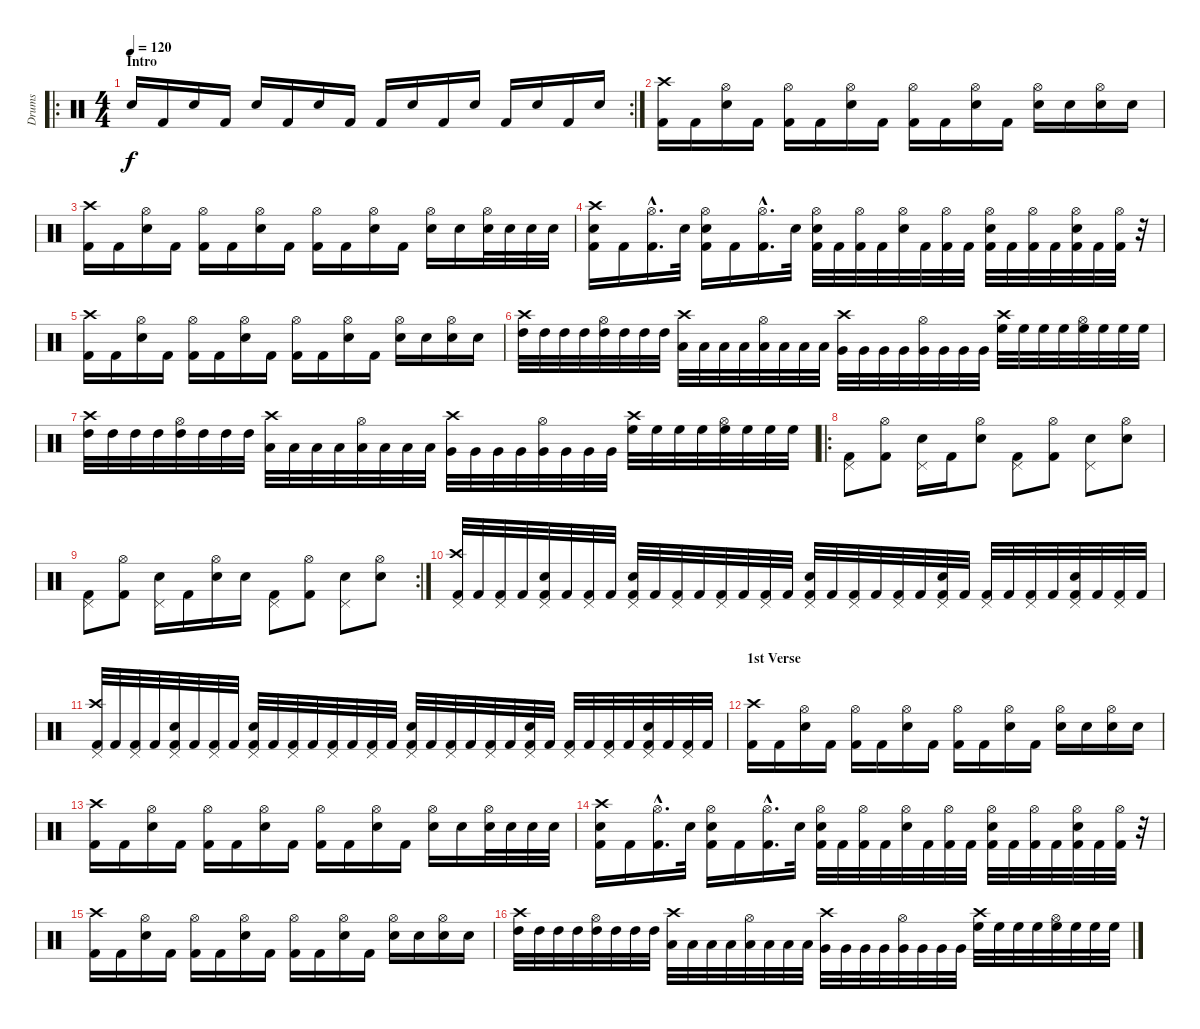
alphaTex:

\track ("Drums" "Drums") {instrument percussion}
\staff {score}
\articulation defaults
\ro
\rc 2
\ts (4 4)
\section ("" "Intro")
\tempo 120
\clef neutral
\ks c "Electric Snare (hit)".16{dy f} "Kick (hit) 2".16 "Electric Snare (hit)".16 "Kick (hit) 2".16 "Electric Snare (hit)".16 "Kick (hit) 2".16 "Electric Snare (hit)".16 "Kick (hit) 2".16 "Kick (hit) 2".16 "Electric Snare (hit)".16 "Kick (hit) 2".16 "Electric Snare (hit)".16 "Kick (hit) 2".16 "Electric Snare (hit)".16 "Kick (hit) 2".16 "Electric Snare (hit)".16
|
("Crash high (hit)" "Kick (hit) 2").16 "Kick (hit) 2".16 ("Hi-Hat (open)" "Electric Snare (hit)").16 "Kick (hit) 2".16 ("Hi-Hat (open)" "Kick (hit) 2").16 "Kick (hit) 2".16 ("Hi-Hat (open)" "Electric Snare (hit)").16 "Kick (hit) 2".16 ("Hi-Hat (open)" "Kick (hit) 2").16 "Kick (hit) 2".16 ("Hi-Hat (open)" "Electric Snare (hit)").16 "Kick (hit) 2".16 ("Hi-Hat (open)" "Electric Snare (hit)").16 "Electric Snare (hit)".16 ("Hi-Hat (open)" "Electric Snare (hit)").16 "Electric Snare (hit)".16 |
("Crash high (hit)" "Kick (hit) 2").16 "Kick (hit) 2".16 ("Hi-Hat (open)" "Electric Snare (hit)").16 "Kick (hit) 2".16 ("Hi-Hat (open)" "Kick (hit) 2").16 "Kick (hit) 2".16 ("Hi-Hat (open)" "Electric Snare (hit)").16 "Kick (hit) 2".16 ("Hi-Hat (open)" "Kick (hit) 2").16 "Kick (hit) 2".16 ("Hi-Hat (open)" "Electric Snare (hit)").16 "Kick (hit) 2".16 ("Hi-Hat (open)" "Electric Snare (hit)").16 "Electric Snare (hit)".16 ("Hi-Hat (open)" "Electric Snare (hit)").32 "Electric Snare (hit)".32 "Electric Snare (hit)".32 "Electric Snare (hit)".32 |
("Crash high (hit)" "Electric Snare (hit)" "Kick (hit) 2").16 "Kick (hit) 2".16 ("Hi-Hat (open)"{hac} "Kick (hit) 2"{hac}).16{d} "Electric Snare (hit)".32 ("Hi-Hat (open)" "Electric Snare (hit)" "Kick (hit) 2").16 "Kick (hit) 2".16 ("Hi-Hat (open)"{hac} "Kick (hit) 2"{hac}).16{d} "Electric Snare (hit)".32 ("Hi-Hat (open)" "Electric Snare (hit)" "Kick (hit) 2").32 "Kick (hit) 2".32 ("Hi-Hat (open)" "Kick (hit) 2").32 "Kick (hit) 2".32 ("Hi-Hat (open)" "Electric Snare (hit)").32 "Kick (hit) 2".32 ("Hi-Hat (open)" "Kick (hit) 2").32 "Kick (hit) 2".32 ("Hi-Hat (open)" "Electric Snare (hit)" "Kick (hit) 2").32 "Kick (hit) 2".32 ("Hi-Hat (open)" "Kick (hit) 2").32 "Kick (hit) 2".32 ("Hi-Hat (open)" "Electric Snare (hit)" "Kick (hit) 2").32 "Kick (hit) 2".32 ("Hi-Hat (open)" "Kick (hit) 2").32 r.32 |
("Crash high (hit)" "Kick (hit) 2").16 "Kick (hit) 2".16 ("Hi-Hat (open)" "Electric Snare (hit)").16 "Kick (hit) 2".16 ("Hi-Hat (open)" "Kick (hit) 2").16 "Kick (hit) 2".16 ("Hi-Hat (open)" "Electric Snare (hit)").16 "Kick (hit) 2".16 ("Hi-Hat (open)" "Kick (hit) 2").16 "Kick (hit) 2".16 ("Hi-Hat (open)" "Electric Snare (hit)").16 "Kick (hit) 2".16 ("Hi-Hat (open)" "Electric Snare (hit)").16 "Electric Snare (hit)".16 ("Hi-Hat (open)" "Electric Snare (hit)").16 "Electric Snare (hit)".16 |
("Crash high (hit)" "High Tom (hit)").32 "High Tom (hit)".32 "High Tom (hit)".32 "High Tom (hit)".32 ("Hi-Hat (open)" "High Tom (hit)").32 "High Tom (hit)".32 "High Tom (hit)".32 "High Tom (hit)".32 ("Crash high (hit)" "Low Tom (hit)").32 "Low Tom (hit)".32 "Low Tom (hit)".32 "Low Tom (hit)".32 ("Hi-Hat (open)" "Low Tom (hit)").32 "Low Tom (hit)".32 "Low Tom (hit)".32 "Low Tom (hit)".32 ("Crash high (hit)" "Very Low Tom (hit)").32 "Very Low Tom (hit)".32 "Very Low Tom (hit)".32 "Very Low Tom (hit)".32 ("Hi-Hat (open)" "Very Low Tom (hit)").32 "Very Low Tom (hit)".32 "Very Low Tom (hit)".32 "Very Low Tom (hit)".32 ("Crash high (hit)" "High Floor Tom (hit)").32 "High Floor Tom (hit)".32 "High Floor Tom (hit)".32 "High Floor Tom (hit)".32 ("Hi-Hat (open)" "High Floor Tom (hit)").32 "High Floor Tom (hit)".32 "High Floor Tom (hit)".32 "High Floor Tom (hit)".32 |
("Crash high (hit)" "High Tom (hit)").32 "High Tom (hit)".32 "High Tom (hit)".32 "High Tom (hit)".32 ("Hi-Hat (open)" "High Tom (hit)").32 "High Tom (hit)".32 "High Tom (hit)".32 "High Tom (hit)".32 ("Crash high (hit)" "Low Tom (hit)").32 "Low Tom (hit)".32 "Low Tom (hit)".32 "Low Tom (hit)".32 ("Hi-Hat (open)" "Low Tom (hit)").32 "Low Tom (hit)".32 "Low Tom (hit)".32 "Low Tom (hit)".32 ("Crash high (hit)" "Very Low Tom (hit)").32 "Very Low Tom (hit)".32 "Very Low Tom (hit)".32 "Very Low Tom (hit)".32 ("Hi-Hat (open)" "Very Low Tom (hit)").32 "Very Low Tom (hit)".32 "Very Low Tom (hit)".32 "Very Low Tom (hit)".32 ("Crash high (hit)" "High Floor Tom (hit)").32 "High Floor Tom (hit)".32 "High Floor Tom (hit)".32 "High Floor Tom (hit)".32 ("Hi-Hat (open)" "High Floor Tom (hit)").32 "High Floor Tom (hit)".32 "High Floor Tom (hit)".32 "High Floor Tom (hit)".32 |
\ro
("Pedal Hi-Hat (hit)" "Kick (hit) 2").8 ("Hi-Hat (open)" "Kick (hit) 2").8 ("Pedal Hi-Hat (hit)" "Electric Snare (hit)").16 "Kick (hit) 2".16 ("Hi-Hat (open)" "Electric Snare (hit)").8 ("Pedal Hi-Hat (hit)" "Kick (hit) 2").8 ("Hi-Hat (open)" "Kick (hit) 2").8 ("Pedal Hi-Hat (hit)" "Electric Snare (hit)").8 ("Hi-Hat (open)" "Electric Snare (hit)").8 |
\rc 2
("Pedal Hi-Hat (hit)" "Kick (hit) 2").8 ("Hi-Hat (open)" "Kick (hit) 2").8 ("Pedal Hi-Hat (hit)" "Electric Snare (hit)").16 "Kick (hit) 2".16 ("Hi-Hat (open)" "Electric Snare (hit)").16 "Electric Snare (hit)".16 ("Pedal Hi-Hat (hit)" "Kick (hit) 2").8 ("Hi-Hat (open)" "Kick (hit) 2").8 ("Pedal Hi-Hat (hit)" "Electric Snare (hit)").8 ("Hi-Hat (open)" "Electric Snare (hit)").8 |
("Crash high (hit)" "Pedal Hi-Hat (hit)" "Kick (hit) 2").32 "Kick (hit) 2".32 ("Pedal Hi-Hat (hit)" "Kick (hit) 2").32 "Kick (hit) 2".32 ("Pedal Hi-Hat (hit)" "Electric Snare (hit)" "Kick (hit) 2").32 "Kick (hit) 2".32 ("Pedal Hi-Hat (hit)" "Kick (hit) 2").32 "Kick (hit) 2".32 ("Pedal Hi-Hat (hit)" "Electric Snare (hit)" "Kick (hit) 2").32 "Kick (hit) 2".32 ("Pedal Hi-Hat (hit)" "Kick (hit) 2").32 "Kick (hit) 2".32 ("Pedal Hi-Hat (hit)" "Kick (hit) 2").32 "Kick (hit) 2".32 ("Pedal Hi-Hat (hit)" "Kick (hit) 2").32 "Kick (hit) 2".32 ("Pedal Hi-Hat (hit)" "Electric Snare (hit)" "Kick (hit) 2").32 "Kick (hit) 2".32 ("Pedal Hi-Hat (hit)" "Kick (hit) 2").32 "Kick (hit) 2".32 ("Pedal Hi-Hat (hit)" "Kick (hit) 2").32 "Kick (hit) 2".32 ("Pedal Hi-Hat (hit)" "Electric Snare (hit)" "Kick (hit) 2").32 "Kick (hit) 2".32 ("Pedal Hi-Hat (hit)" "Kick (hit) 2").32 "Kick (hit) 2".32 ("Pedal Hi-Hat (hit)" "Kick (hit) 2").32 "Kick (hit) 2".32 ("Pedal Hi-Hat (hit)" "Electric Snare (hit)" "Kick (hit) 2").32 "Kick (hit) 2".32 ("Pedal Hi-Hat (hit)" "Kick (hit) 2").32 "Kick (hit) 2".32 |
("Crash high (hit)" "Pedal Hi-Hat (hit)" "Kick (hit) 2").32 "Kick (hit) 2".32 ("Pedal Hi-Hat (hit)" "Kick (hit) 2").32 "Kick (hit) 2".32 ("Pedal Hi-Hat (hit)" "Electric Snare (hit)" "Kick (hit) 2").32 "Kick (hit) 2".32 ("Pedal Hi-Hat (hit)" "Kick (hit) 2").32 "Kick (hit) 2".32 ("Pedal Hi-Hat (hit)" "Electric Snare (hit)" "Kick (hit) 2").32 "Kick (hit) 2".32 ("Pedal Hi-Hat (hit)" "Kick (hit) 2").32 "Kick (hit) 2".32 ("Pedal Hi-Hat (hit)" "Kick (hit) 2").32 "Kick (hit) 2".32 ("Pedal Hi-Hat (hit)" "Kick (hit) 2").32 "Kick (hit) 2".32 ("Pedal Hi-Hat (hit)" "Electric Snare (hit)" "Kick (hit) 2").32 "Kick (hit) 2".32 ("Pedal Hi-Hat (hit)" "Kick (hit) 2").32 "Kick (hit) 2".32 ("Pedal Hi-Hat (hit)" "Kick (hit) 2").32 "Kick (hit) 2".32 ("Pedal Hi-Hat (hit)" "Electric Snare (hit)" "Kick (hit) 2").32 "Kick (hit) 2".32 ("Pedal Hi-Hat (hit)" "Kick (hit) 2").32 "Kick (hit) 2".32 ("Pedal Hi-Hat (hit)" "Kick (hit) 2").32 "Kick (hit) 2".32 ("Pedal Hi-Hat (hit)" "Electric Snare (hit)" "Kick (hit) 2").32 "Kick (hit) 2".32 ("Pedal Hi-Hat (hit)" "Kick (hit) 2").32 "Kick (hit) 2".32 |
\section ("" "1st Verse")
("Crash high (hit)" "Kick (hit) 2").16 "Kick (hit) 2".16 ("Hi-Hat (open)" "Electric Snare (hit)").16 "Kick (hit) 2".16 ("Hi-Hat (open)" "Kick (hit) 2").16 "Kick (hit) 2".16 ("Hi-Hat (open)" "Electric Snare (hit)").16 "Kick (hit) 2".16 ("Hi-Hat (open)" "Kick (hit) 2").16 "Kick (hit) 2".16 ("Hi-Hat (open)" "Electric Snare (hit)").16 "Kick (hit) 2".16 ("Hi-Hat (open)" "Electric Snare (hit)").16 "Electric Snare (hit)".16 ("Hi-Hat (open)" "Electric Snare (hit)").16 "Electric Snare (hit)".16 |
("Crash high (hit)" "Kick (hit) 2").16 "Kick (hit) 2".16 ("Hi-Hat (open)" "Electric Snare (hit)").16 "Kick (hit) 2".16 ("Hi-Hat (open)" "Kick (hit) 2").16 "Kick (hit) 2".16 ("Hi-Hat (open)" "Electric Snare (hit)").16 "Kick (hit) 2".16 ("Hi-Hat (open)" "Kick (hit) 2").16 "Kick (hit) 2".16 ("Hi-Hat (open)" "Electric Snare (hit)").16 "Kick (hit) 2".16 ("Hi-Hat (open)" "Electric Snare (hit)").16 "Electric Snare (hit)".16 ("Hi-Hat (open)" "Electric Snare (hit)").32 "Electric Snare (hit)".32 "Electric Snare (hit)".32 "Electric Snare (hit)".32 |
("Crash high (hit)" "Electric Snare (hit)" "Kick (hit) 2").16 "Kick (hit) 2".16 ("Hi-Hat (open)"{hac} "Kick (hit) 2"{hac}).16{d} "Electric Snare (hit)".32 ("Hi-Hat (open)" "Electric Snare (hit)" "Kick (hit) 2").16 "Kick (hit) 2".16 ("Hi-Hat (open)"{hac} "Kick (hit) 2"{hac}).16{d} "Electric Snare (hit)".32 ("Hi-Hat (open)" "Electric Snare (hit)" "Kick (hit) 2").32 "Kick (hit) 2".32 ("Hi-Hat (open)" "Kick (hit) 2").32 "Kick (hit) 2".32 ("Hi-Hat (open)" "Electric Snare (hit)").32 "Kick (hit) 2".32 ("Hi-Hat (open)" "Kick (hit) 2").32 "Kick (hit) 2".32 ("Hi-Hat (open)" "Electric Snare (hit)" "Kick (hit) 2").32 "Kick (hit) 2".32 ("Hi-Hat (open)" "Kick (hit) 2").32 "Kick (hit) 2".32 ("Hi-Hat (open)" "Electric Snare (hit)" "Kick (hit) 2").32 "Kick (hit) 2".32 ("Hi-Hat (open)" "Kick (hit) 2").32 r.32 |
("Crash high (hit)" "Kick (hit) 2").16 "Kick (hit) 2".16 ("Hi-Hat (open)" "Electric Snare (hit)").16 "Kick (hit) 2".16 ("Hi-Hat (open)" "Kick (hit) 2").16 "Kick (hit) 2".16 ("Hi-Hat (open)" "Electric Snare (hit)").16 "Kick (hit) 2".16 ("Hi-Hat (open)" "Kick (hit) 2").16 "Kick (hit) 2".16 ("Hi-Hat (open)" "Electric Snare (hit)").16 "Kick (hit) 2".16 ("Hi-Hat (open)" "Electric Snare (hit)").16 "Electric Snare (hit)".16 ("Hi-Hat (open)" "Electric Snare (hit)").16 "Electric Snare (hit)".16 |
("Crash high (hit)" "High Tom (hit)").32 "High Tom (hit)".32 "High Tom (hit)".32 "High Tom (hit)".32 ("Hi-Hat (open)" "High Tom (hit)").32 "High Tom (hit)".32 "High Tom (hit)".32 "High Tom (hit)".32 ("Crash high (hit)" "Low Tom (hit)").32 "Low Tom (hit)".32 "Low Tom (hit)".32 "Low Tom (hit)".32 ("Hi-Hat (open)" "Low Tom (hit)").32 "Low Tom (hit)".32 "Low Tom (hit)".32 "Low Tom (hit)".32 ("Crash high (hit)" "Very Low Tom (hit)").32 "Very Low Tom (hit)".32 "Very Low Tom (hit)".32 "Very Low Tom (hit)".32 ("Hi-Hat (open)" "Very Low Tom (hit)").32 "Very Low Tom (hit)".32 "Very Low Tom (hit)".32 "Very Low Tom (hit)".32 ("Crash high (hit)" "High Floor Tom (hit)").32 "High Floor Tom (hit)".32 "High Floor Tom (hit)".32 "High Floor Tom (hit)".32 ("Hi-Hat (open)" "High Floor Tom (hit)").32 "High Floor Tom (hit)".32 "High Floor Tom (hit)".32 "High Floor Tom (hit)".32
